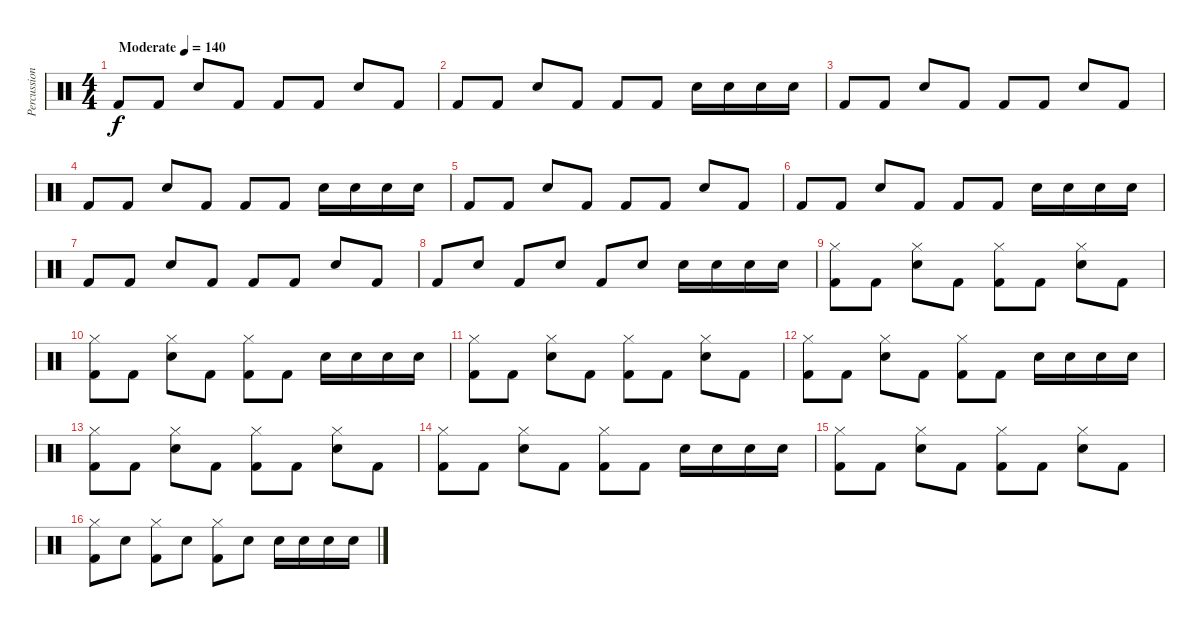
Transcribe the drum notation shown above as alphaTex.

\track ("Percussion" "Percussion") {instrument percussion}
\staff {score}
\articulation defaults
\ts (4 4)
\tempo (140 "Moderate")
\clef neutral
\ks c "Kick (hit) 2".8{dy f} "Kick (hit) 2".8 "Electric Snare (hit)".8 "Kick (hit) 2".8 "Kick (hit) 2".8 "Kick (hit) 2".8 "Electric Snare (hit)".8 "Kick (hit) 2".8
|
"Kick (hit) 2".8 "Kick (hit) 2".8 "Electric Snare (hit)".8 "Kick (hit) 2".8 "Kick (hit) 2".8 "Kick (hit) 2".8 "Electric Snare (hit)".16 "Electric Snare (hit)".16 "Electric Snare (hit)".16 "Electric Snare (hit)".16 |
"Kick (hit) 2".8 "Kick (hit) 2".8 "Electric Snare (hit)".8 "Kick (hit) 2".8 "Kick (hit) 2".8 "Kick (hit) 2".8 "Electric Snare (hit)".8 "Kick (hit) 2".8 |
"Kick (hit) 2".8 "Kick (hit) 2".8 "Electric Snare (hit)".8 "Kick (hit) 2".8 "Kick (hit) 2".8 "Kick (hit) 2".8 "Electric Snare (hit)".16 "Electric Snare (hit)".16 "Electric Snare (hit)".16 "Electric Snare (hit)".16 |
"Kick (hit) 2".8 "Kick (hit) 2".8 "Electric Snare (hit)".8 "Kick (hit) 2".8 "Kick (hit) 2".8 "Kick (hit) 2".8 "Electric Snare (hit)".8 "Kick (hit) 2".8 |
"Kick (hit) 2".8 "Kick (hit) 2".8 "Electric Snare (hit)".8 "Kick (hit) 2".8 "Kick (hit) 2".8 "Kick (hit) 2".8 "Electric Snare (hit)".16 "Electric Snare (hit)".16 "Electric Snare (hit)".16 "Electric Snare (hit)".16 |
"Kick (hit) 2".8 "Kick (hit) 2".8 "Electric Snare (hit)".8 "Kick (hit) 2".8 "Kick (hit) 2".8 "Kick (hit) 2".8 "Electric Snare (hit)".8 "Kick (hit) 2".8 |
"Kick (hit) 2".8 "Electric Snare (hit)".8 "Kick (hit) 2".8 "Electric Snare (hit)".8 "Kick (hit) 2".8 "Electric Snare (hit)".8 "Electric Snare (hit)".16 "Electric Snare (hit)".16 "Electric Snare (hit)".16 "Electric Snare (hit)".16 |
("Hi-Hat (closed)" "Kick (hit) 2").8 "Kick (hit) 2".8 ("Hi-Hat (closed)" "Electric Snare (hit)").8 "Kick (hit) 2".8 ("Hi-Hat (closed)" "Kick (hit) 2").8 "Kick (hit) 2".8 ("Hi-Hat (closed)" "Electric Snare (hit)").8 "Kick (hit) 2".8 |
("Hi-Hat (closed)" "Kick (hit) 2").8 "Kick (hit) 2".8 ("Hi-Hat (closed)" "Electric Snare (hit)").8 "Kick (hit) 2".8 ("Hi-Hat (closed)" "Kick (hit) 2").8 "Kick (hit) 2".8 "Electric Snare (hit)".16 "Electric Snare (hit)".16 "Electric Snare (hit)".16 "Electric Snare (hit)".16 |
("Hi-Hat (closed)" "Kick (hit) 2").8 "Kick (hit) 2".8 ("Hi-Hat (closed)" "Electric Snare (hit)").8 "Kick (hit) 2".8 ("Hi-Hat (closed)" "Kick (hit) 2").8 "Kick (hit) 2".8 ("Hi-Hat (closed)" "Electric Snare (hit)").8 "Kick (hit) 2".8 |
("Hi-Hat (closed)" "Kick (hit) 2").8 "Kick (hit) 2".8 ("Hi-Hat (closed)" "Electric Snare (hit)").8 "Kick (hit) 2".8 ("Hi-Hat (closed)" "Kick (hit) 2").8 "Kick (hit) 2".8 "Electric Snare (hit)".16 "Electric Snare (hit)".16 "Electric Snare (hit)".16 "Electric Snare (hit)".16 |
("Hi-Hat (closed)" "Kick (hit) 2").8 "Kick (hit) 2".8 ("Hi-Hat (closed)" "Electric Snare (hit)").8 "Kick (hit) 2".8 ("Hi-Hat (closed)" "Kick (hit) 2").8 "Kick (hit) 2".8 ("Hi-Hat (closed)" "Electric Snare (hit)").8 "Kick (hit) 2".8 |
("Hi-Hat (closed)" "Kick (hit) 2").8 "Kick (hit) 2".8 ("Hi-Hat (closed)" "Electric Snare (hit)").8 "Kick (hit) 2".8 ("Hi-Hat (closed)" "Kick (hit) 2").8 "Kick (hit) 2".8 "Electric Snare (hit)".16 "Electric Snare (hit)".16 "Electric Snare (hit)".16 "Electric Snare (hit)".16 |
("Hi-Hat (closed)" "Kick (hit) 2").8 "Kick (hit) 2".8 ("Hi-Hat (closed)" "Electric Snare (hit)").8 "Kick (hit) 2".8 ("Hi-Hat (closed)" "Kick (hit) 2").8 "Kick (hit) 2".8 ("Hi-Hat (closed)" "Electric Snare (hit)").8 "Kick (hit) 2".8 |
("Hi-Hat (closed)" "Kick (hit) 2").8 "Electric Snare (hit)".8 ("Hi-Hat (closed)" "Kick (hit) 2").8 "Electric Snare (hit)".8 ("Hi-Hat (closed)" "Kick (hit) 2").8 "Electric Snare (hit)".8 "Electric Snare (hit)".16 "Electric Snare (hit)".16 "Electric Snare (hit)".16 "Electric Snare (hit)".16
